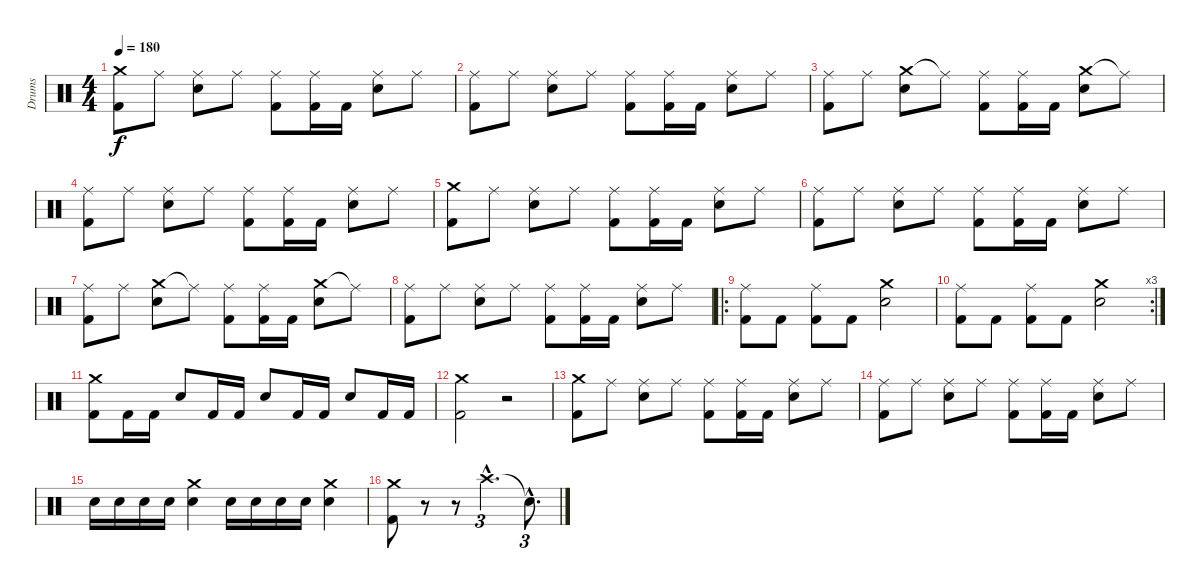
\track ("Drums" "Drums") {instrument percussion}
\staff {score}
\articulation defaults
\ts (4 4)
\tempo 180
\clef neutral
\ks c
("Crash medium (hit)" "Kick (hit) 2").8{dy f} "Ride (middle)".8 ("Ride (middle)" "Electric Snare (hit)").8 "Ride (middle)".8 ("Ride (middle)" "Kick (hit) 2").8 ("Ride (middle)" "Kick (hit) 2").16 "Kick (hit) 2".16 ("Ride (middle)" "Electric Snare (hit)").8 "Ride (middle)".8 |
("Ride (middle)" "Kick (hit) 2").8 "Ride (middle)".8 ("Ride (middle)" "Electric Snare (hit)").8 "Ride (middle)".8 ("Ride (middle)" "Kick (hit) 2").8 ("Ride (middle)" "Kick (hit) 2").16 "Kick (hit) 2".16 ("Ride (middle)" "Electric Snare (hit)").8 "Ride (middle)".8 |
("Ride (middle)" "Kick (hit) 2").8 "Ride (middle)".8 ("Crash medium (hit)" "Electric Snare (hit)").8 "Ride (middle)"{t}.8 ("Ride (middle)" "Kick (hit) 2").8 ("Ride (middle)" "Kick (hit) 2").16 "Kick (hit) 2".16 ("Crash medium (hit)" "Electric Snare (hit)").8 "Ride (middle)"{t}.8 |
("Ride (middle)" "Kick (hit) 2").8 "Ride (middle)".8 ("Ride (middle)" "Electric Snare (hit)").8 "Ride (middle)".8 ("Ride (middle)" "Kick (hit) 2").8 ("Ride (middle)" "Kick (hit) 2").16 "Kick (hit) 2".16 ("Ride (middle)" "Electric Snare (hit)").8 "Ride (middle)".8 |
("Crash medium (hit)" "Kick (hit) 2").8 "Ride (middle)".8 ("Ride (middle)" "Electric Snare (hit)").8 "Ride (middle)".8 ("Ride (middle)" "Kick (hit) 2").8 ("Ride (middle)" "Kick (hit) 2").16 "Kick (hit) 2".16 ("Ride (middle)" "Electric Snare (hit)").8 "Ride (middle)".8 |
("Ride (middle)" "Kick (hit) 2").8 "Ride (middle)".8 ("Ride (middle)" "Electric Snare (hit)").8 "Ride (middle)".8 ("Ride (middle)" "Kick (hit) 2").8 ("Ride (middle)" "Kick (hit) 2").16 "Kick (hit) 2".16 ("Ride (middle)" "Electric Snare (hit)").8 "Ride (middle)".8 |
("Ride (middle)" "Kick (hit) 2").8 "Ride (middle)".8 ("Crash medium (hit)" "Electric Snare (hit)").8 "Ride (middle)"{t}.8 ("Ride (middle)" "Kick (hit) 2").8 ("Ride (middle)" "Kick (hit) 2").16 "Kick (hit) 2".16 ("Crash medium (hit)" "Electric Snare (hit)").8 "Ride (middle)"{t}.8 |
("Ride (middle)" "Kick (hit) 2").8 "Ride (middle)".8 ("Ride (middle)" "Electric Snare (hit)").8 "Ride (middle)".8 ("Ride (middle)" "Kick (hit) 2").8 ("Ride (middle)" "Kick (hit) 2").16 "Kick (hit) 2".16 ("Ride (middle)" "Electric Snare (hit)").8 "Ride (middle)".8 |
\ro
("Ride (middle)" "Kick (hit) 2").8 "Kick (hit) 2".8 ("Ride (middle)" "Kick (hit) 2").8 "Kick (hit) 2".8 ("Crash medium (hit)" "Electric Snare (hit)").2 |
\rc 3
("Ride (middle)" "Kick (hit) 2").8 "Kick (hit) 2".8 ("Ride (middle)" "Kick (hit) 2").8 "Kick (hit) 2".8 ("Crash medium (hit)" "Electric Snare (hit)").2 |
("Crash medium (hit)" "Kick (hit) 2").8 "Kick (hit) 2".16 "Kick (hit) 2".16 "Electric Snare (hit)".8 "Kick (hit) 2".16 "Kick (hit) 2".16 "Electric Snare (hit)".8 "Kick (hit) 2".16 "Kick (hit) 2".16 "Electric Snare (hit)".8 "Kick (hit) 2".16 "Kick (hit) 2".16 |
("Crash medium (hit)" "Kick (hit) 2").2 r.2 |
("Crash medium (hit)" "Kick (hit) 2").8 "Ride (middle)".8 ("Ride (middle)" "Electric Snare (hit)").8 "Ride (middle)".8 ("Ride (middle)" "Kick (hit) 2").8 ("Ride (middle)" "Kick (hit) 2").16 "Kick (hit) 2".16 ("Ride (middle)" "Electric Snare (hit)").8 "Ride (middle)".8 |
("Ride (middle)" "Kick (hit) 2").8 "Ride (middle)".8 ("Ride (middle)" "Electric Snare (hit)").8 "Ride (middle)".8 ("Ride (middle)" "Kick (hit) 2").8 ("Ride (middle)" "Kick (hit) 2").16 "Kick (hit) 2".16 ("Ride (middle)" "Electric Snare (hit)").8 "Ride (middle)".8 |
"Electric Snare (hit)".16 "Electric Snare (hit)".16 "Electric Snare (hit)".16 "Electric Snare (hit)".16 ("Electric Snare (hit)" "Crash medium (hit)").4 "Electric Snare (hit)".16 "Electric Snare (hit)".16 "Electric Snare (hit)".16 "Electric Snare (hit)".16 ("Electric Snare (hit)" "Crash medium (hit)").4 |
("Crash medium (hit)" "Kick (hit) 2").8 r.8 r.8 "Crash high (hit)"{hac}.2{d tu (3 2)} "Snare (hit)"{hac t}.8{d tu (3 2)}
